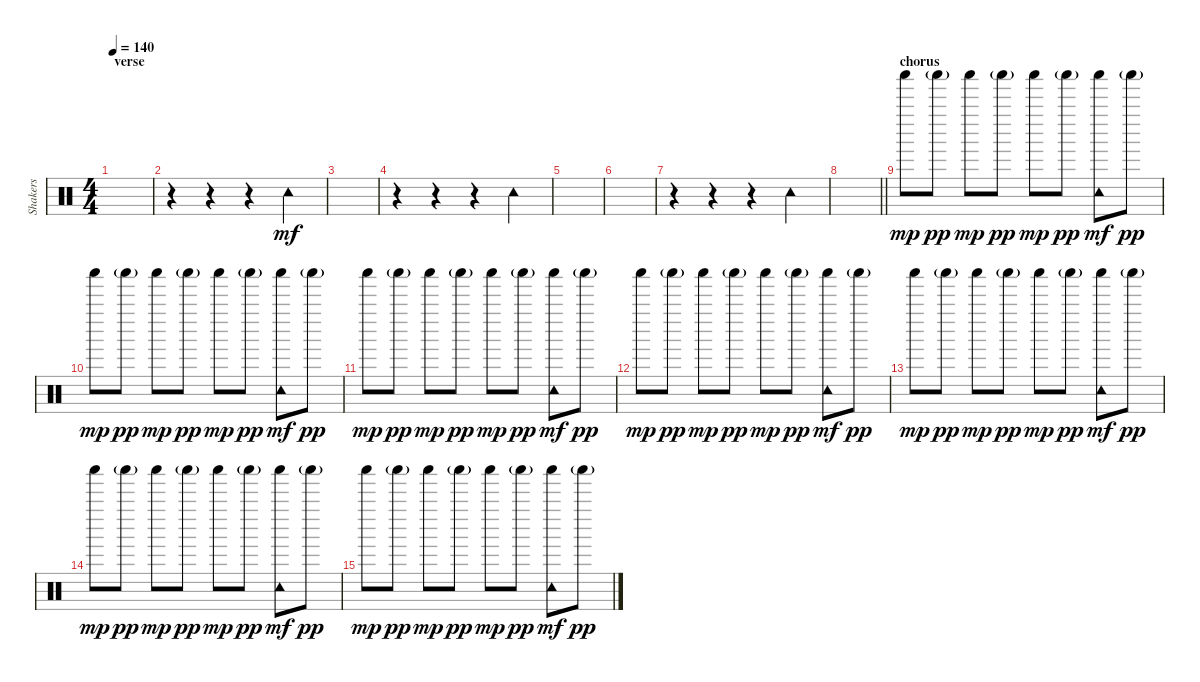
\track ("Shakers" "Shakers") {instrument percussion}
\staff {score}
\articulation defaults
\ts (4 4)
\section ("" "verse")
\tempo 140
\clef neutral
\ks c
|
r.4 r.4 r.4 "Tambourine (hit)".4{dy mf} |
|
r.4 r.4 r.4 "Tambourine (hit)".4 |
|
|
r.4 r.4 r.4 "Tambourine (hit)".4 |
\barLineRight lightlight
|
\section ("" "chorus")
"Shaker (hit)".8{dy mp} "Shaker (hit)"{g}.8{dy pp} "Shaker (hit)".8{dy mp} "Shaker (hit)"{g}.8{dy pp} "Shaker (hit)".8{dy mp} "Shaker (hit)"{g}.8{dy pp} ("Shaker (hit)" "Tambourine (hit)").8{dy mf} "Shaker (hit)"{g}.8{dy pp} |
"Shaker (hit)".8{dy mp} "Shaker (hit)"{g}.8{dy pp} "Shaker (hit)".8{dy mp} "Shaker (hit)"{g}.8{dy pp} "Shaker (hit)".8{dy mp} "Shaker (hit)"{g}.8{dy pp} ("Shaker (hit)" "Tambourine (hit)").8{dy mf} "Shaker (hit)"{g}.8{dy pp} |
"Shaker (hit)".8{dy mp} "Shaker (hit)"{g}.8{dy pp} "Shaker (hit)".8{dy mp} "Shaker (hit)"{g}.8{dy pp} "Shaker (hit)".8{dy mp} "Shaker (hit)"{g}.8{dy pp} ("Shaker (hit)" "Tambourine (hit)").8{dy mf} "Shaker (hit)"{g}.8{dy pp} |
"Shaker (hit)".8{dy mp} "Shaker (hit)"{g}.8{dy pp} "Shaker (hit)".8{dy mp} "Shaker (hit)"{g}.8{dy pp} "Shaker (hit)".8{dy mp} "Shaker (hit)"{g}.8{dy pp} ("Shaker (hit)" "Tambourine (hit)").8{dy mf} "Shaker (hit)"{g}.8{dy pp} |
"Shaker (hit)".8{dy mp} "Shaker (hit)"{g}.8{dy pp} "Shaker (hit)".8{dy mp} "Shaker (hit)"{g}.8{dy pp} "Shaker (hit)".8{dy mp} "Shaker (hit)"{g}.8{dy pp} ("Shaker (hit)" "Tambourine (hit)").8{dy mf} "Shaker (hit)"{g}.8{dy pp} |
"Shaker (hit)".8{dy mp} "Shaker (hit)"{g}.8{dy pp} "Shaker (hit)".8{dy mp} "Shaker (hit)"{g}.8{dy pp} "Shaker (hit)".8{dy mp} "Shaker (hit)"{g}.8{dy pp} ("Shaker (hit)" "Tambourine (hit)").8{dy mf} "Shaker (hit)"{g}.8{dy pp} |
"Shaker (hit)".8{dy mp} "Shaker (hit)"{g}.8{dy pp} "Shaker (hit)".8{dy mp} "Shaker (hit)"{g}.8{dy pp} "Shaker (hit)".8{dy mp} "Shaker (hit)"{g}.8{dy pp} ("Shaker (hit)" "Tambourine (hit)").8{dy mf} "Shaker (hit)"{g}.8{dy pp}
